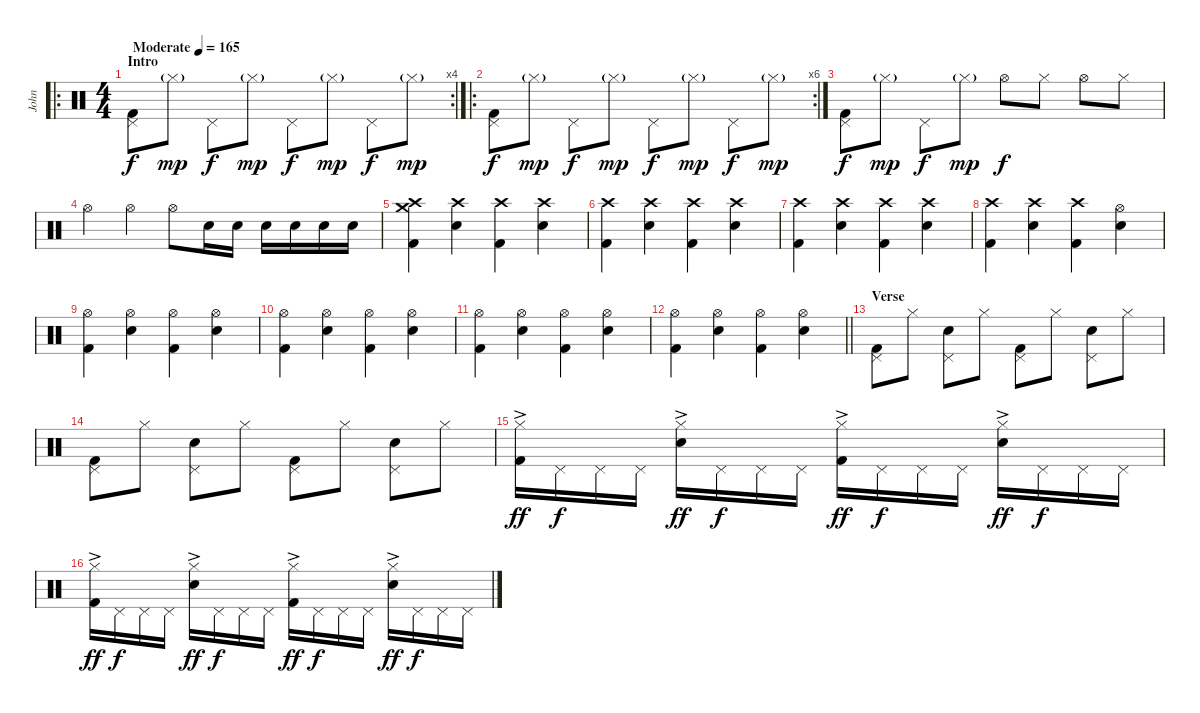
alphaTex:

\track ("John" "John") {instrument percussion}
\staff {score}
\articulation defaults
\ro
\rc 4
\ts (4 4)
\section ("" "Intro")
\tempo (165 "Moderate")
\clef neutral
\ks c
("Pedal Hi-Hat (hit)" "Kick (hit) 2").8{dy f} "Hi-Hat (closed)"{g}.8{dy mp} "Pedal Hi-Hat (hit)".8{dy f} "Hi-Hat (closed)"{g}.8{dy mp} "Pedal Hi-Hat (hit)".8{dy f} "Hi-Hat (closed)"{g}.8{dy mp} "Pedal Hi-Hat (hit)".8{dy f} "Hi-Hat (closed)"{g}.8{dy mp} |
\ro
\rc 6
("Pedal Hi-Hat (hit)" "Kick (hit) 2").8{dy f} "Hi-Hat (closed)"{g}.8{dy mp} "Pedal Hi-Hat (hit)".8{dy f} "Hi-Hat (closed)"{g}.8{dy mp} "Pedal Hi-Hat (hit)".8{dy f} "Hi-Hat (closed)"{g}.8{dy mp} "Pedal Hi-Hat (hit)".8{dy f} "Hi-Hat (closed)"{g}.8{dy mp} |
("Pedal Hi-Hat (hit)" "Kick (hit) 2").8{dy f} "Hi-Hat (closed)"{g}.8{dy mp} "Pedal Hi-Hat (hit)".8{dy f} "Hi-Hat (closed)"{g}.8{dy mp} "Hi-Hat (open)".8{dy f} "Hi-Hat (closed)".8 "Hi-Hat (open)".8 "Hi-Hat (closed)".8 |
"Hi-Hat (open)".4 "Hi-Hat (open)".4 "Hi-Hat (open)".8 "Electric Snare (hit)".16 "Electric Snare (hit)".16 "Electric Snare (hit)".16 "Electric Snare (hit)".16 "Electric Snare (hit)".16 "Electric Snare (hit)".16 |
("Crash medium (hit)" "Crash high (hit)" "Kick (hit) 2").4 ("Crash high (hit)" "Electric Snare (hit)").4 ("Crash high (hit)" "Kick (hit) 2").4 ("Crash high (hit)" "Electric Snare (hit)").4 |
("Crash high (hit)" "Kick (hit) 2").4 ("Crash high (hit)" "Electric Snare (hit)").4 ("Crash high (hit)" "Kick (hit) 2").4 ("Crash high (hit)" "Electric Snare (hit)").4 |
("Crash high (hit)" "Kick (hit) 2").4 ("Crash high (hit)" "Electric Snare (hit)").4 ("Crash high (hit)" "Kick (hit) 2").4 ("Crash high (hit)" "Electric Snare (hit)").4 |
("Crash high (hit)" "Kick (hit) 2").4 ("Crash high (hit)" "Electric Snare (hit)").4 ("Crash high (hit)" "Kick (hit) 2").4 ("Hi-Hat (open)" "Electric Snare (hit)").4 |
("Hi-Hat (open)" "Kick (hit) 2").4 ("Hi-Hat (open)" "Electric Snare (hit)").4 ("Hi-Hat (open)" "Kick (hit) 2").4 ("Hi-Hat (open)" "Electric Snare (hit)").4 |
("Hi-Hat (open)" "Kick (hit) 2").4 ("Hi-Hat (open)" "Electric Snare (hit)").4 ("Hi-Hat (open)" "Kick (hit) 2").4 ("Hi-Hat (open)" "Electric Snare (hit)").4 |
("Hi-Hat (open)" "Kick (hit) 2").4 ("Hi-Hat (open)" "Electric Snare (hit)").4 ("Hi-Hat (open)" "Kick (hit) 2").4 ("Hi-Hat (open)" "Electric Snare (hit)").4 |
\barLineRight lightlight
("Hi-Hat (open)" "Kick (hit) 2").4 ("Hi-Hat (open)" "Electric Snare (hit)").4 ("Hi-Hat (open)" "Kick (hit) 2").4 ("Hi-Hat (open)" "Electric Snare (hit)").4 |
\section ("" "Verse")
("Pedal Hi-Hat (hit)" "Kick (hit) 2").8 "Hi-Hat (closed)".8 ("Pedal Hi-Hat (hit)" "Electric Snare (hit)").8 "Hi-Hat (closed)".8 ("Pedal Hi-Hat (hit)" "Kick (hit) 2").8 "Hi-Hat (closed)".8 ("Pedal Hi-Hat (hit)" "Electric Snare (hit)").8 "Hi-Hat (closed)".8 |
("Pedal Hi-Hat (hit)" "Kick (hit) 2").8 "Hi-Hat (closed)".8 ("Pedal Hi-Hat (hit)" "Electric Snare (hit)").8 "Hi-Hat (closed)".8 ("Pedal Hi-Hat (hit)" "Kick (hit) 2").8 "Hi-Hat (closed)".8 ("Pedal Hi-Hat (hit)" "Electric Snare (hit)").8 "Hi-Hat (closed)".8 |
("Hi-Hat (closed)"{ac} "Kick (hit) 2").16{dy ff} "Pedal Hi-Hat (hit)".16{dy f} "Pedal Hi-Hat (hit)".16 "Pedal Hi-Hat (hit)".16 ("Hi-Hat (closed)"{ac} "Electric Snare (hit)").16{dy ff} "Pedal Hi-Hat (hit)".16{dy f} "Pedal Hi-Hat (hit)".16 "Pedal Hi-Hat (hit)".16 ("Hi-Hat (closed)"{ac} "Kick (hit) 2").16{dy ff} "Pedal Hi-Hat (hit)".16{dy f} "Pedal Hi-Hat (hit)".16 "Pedal Hi-Hat (hit)".16 ("Hi-Hat (closed)"{ac} "Electric Snare (hit)").16{dy ff} "Pedal Hi-Hat (hit)".16{dy f} "Pedal Hi-Hat (hit)".16 "Pedal Hi-Hat (hit)".16 |
("Hi-Hat (closed)"{ac} "Kick (hit) 2").16{dy ff} "Pedal Hi-Hat (hit)".16{dy f} "Pedal Hi-Hat (hit)".16 "Pedal Hi-Hat (hit)".16 ("Hi-Hat (closed)"{ac} "Electric Snare (hit)").16{dy ff} "Pedal Hi-Hat (hit)".16{dy f} "Pedal Hi-Hat (hit)".16 "Pedal Hi-Hat (hit)".16 ("Hi-Hat (closed)"{ac} "Kick (hit) 2").16{dy ff} "Pedal Hi-Hat (hit)".16{dy f} "Pedal Hi-Hat (hit)".16 "Pedal Hi-Hat (hit)".16 ("Hi-Hat (closed)"{ac} "Electric Snare (hit)").16{dy ff} "Pedal Hi-Hat (hit)".16{dy f} "Pedal Hi-Hat (hit)".16 "Pedal Hi-Hat (hit)".16
